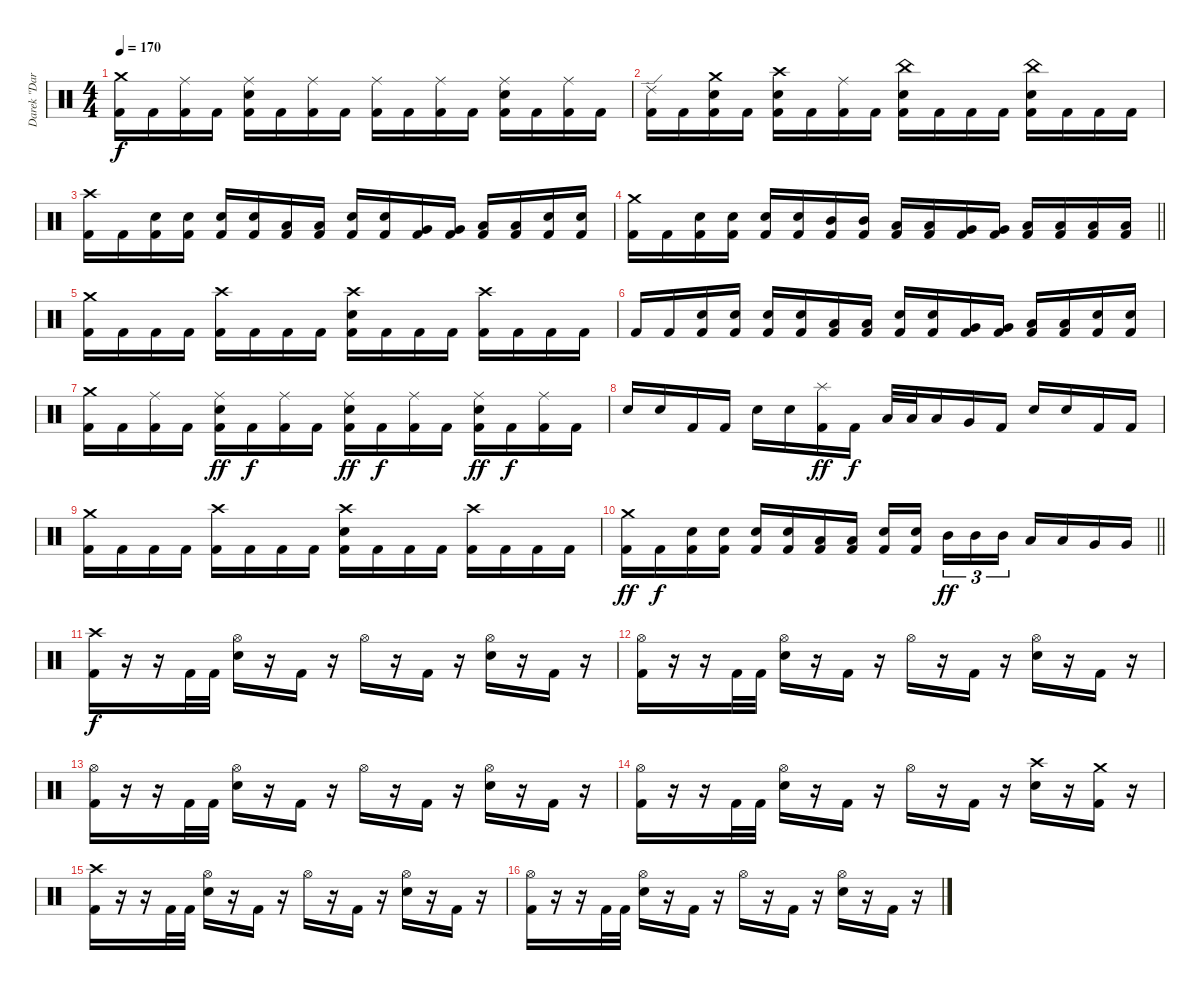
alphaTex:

\track ("Darek \"Daray\" Brzozowski " "Darek \"Dar") {instrument percussion}
\staff {score}
\articulation defaults
\ts (4 4)
\tempo 170
\clef neutral
\ks c
("Crash medium (hit)" "Kick (hit) 2").16{dy f} "Kick (hit) 2".16 ("Ride (middle)" "Kick (hit) 2").16 "Kick (hit) 2".16 ("Ride (middle)" "Electric Snare (hit)" "Kick (hit) 2").16 "Kick (hit) 2".16 ("Ride (middle)" "Kick (hit) 2").16 "Kick (hit) 2".16 ("Ride (middle)" "Kick (hit) 2").16 "Kick (hit) 2".16 ("Ride (middle)" "Kick (hit) 2").16 "Kick (hit) 2".16 ("Ride (middle)" "Electric Snare (hit)" "Kick (hit) 2").16 "Kick (hit) 2".16 ("Ride (middle)" "Kick (hit) 2").16 "Kick (hit) 2".16 |
("Ride (edge) 2" "Kick (hit) 2").16 "Kick (hit) 2".16 ("Crash medium (hit)" "Electric Snare (hit)" "Kick (hit) 2").16 "Kick (hit) 2".16 ("Crash high (hit)" "Electric Snare (hit)" "Kick (hit) 2").16 "Kick (hit) 2".16 ("Ride (middle)" "Kick (hit) 2").16 "Kick (hit) 2".16 ("China (hit)" "Electric Snare (hit)" "Kick (hit) 2").16 "Kick (hit) 2".16 "Kick (hit) 2".16 "Kick (hit) 2".16 ("China (hit)" "Electric Snare (hit)" "Kick (hit) 2").16 "Kick (hit) 2".16 "Kick (hit) 2".16 "Kick (hit) 2".16 |
("Crash high (hit)" "Kick (hit) 2").16 "Kick (hit) 2".16 ("Electric Snare (hit)" "Kick (hit) 2").16 ("Electric Snare (hit)" "Kick (hit) 2").16 ("Electric Snare (hit)" "Kick (hit) 2").16 ("Electric Snare (hit)" "Kick (hit) 2").16 ("Low Tom (hit)" "Kick (hit) 2").16 ("Low Tom (hit)" "Kick (hit) 2").16 ("Electric Snare (hit)" "Kick (hit) 2").16 ("Electric Snare (hit)" "Kick (hit) 2").16 ("Very Low Tom (hit)" "Kick (hit) 2").16 ("Very Low Tom (hit)" "Kick (hit) 2").16 ("Low Floor Tom (hit)" "Kick (hit) 2").16 ("Low Floor Tom (hit)" "Kick (hit) 2").16 ("Electric Snare (hit)" "Kick (hit) 2").16 ("Electric Snare (hit)" "Kick (hit) 2").16 |
\barLineRight lightlight
("Crash medium (hit)" "Kick (hit) 2").16 "Kick (hit) 2".16 ("Electric Snare (hit)" "Kick (hit) 2").16 ("Electric Snare (hit)" "Kick (hit) 2").16 ("Electric Snare (hit)" "Kick (hit) 2").16 ("Electric Snare (hit)" "Kick (hit) 2").16 ("Mid Tom (hit)" "Kick (hit) 2").16 ("Mid Tom (hit)" "Kick (hit) 2").16 ("Low Tom (hit)" "Kick (hit) 2").16 ("Low Tom (hit)" "Kick (hit) 2").16 ("Very Low Tom (hit)" "Kick (hit) 2").16 ("Very Low Tom (hit)" "Kick (hit) 2").16 ("Low Floor Tom (hit)" "Kick (hit) 2").16 ("Low Floor Tom (hit)" "Kick (hit) 2").16 ("Low Floor Tom (hit)" "Kick (hit) 2").16 ("Low Floor Tom (hit)" "Kick (hit) 2").16 |
("Crash medium (hit)" "Kick (hit) 2").16 "Kick (hit) 2".16 "Kick (hit) 2".16 "Kick (hit) 2".16 ("Crash high (hit)" "Kick (hit) 2").16 "Kick (hit) 2".16 "Kick (hit) 2".16 "Kick (hit) 2".16 ("Crash high (hit)" "Electric Snare (hit)" "Kick (hit) 2").16 "Kick (hit) 2".16 "Kick (hit) 2".16 "Kick (hit) 2".16 ("Crash high (hit)" "Kick (hit) 2").16 "Kick (hit) 2".16 "Kick (hit) 2".16 "Kick (hit) 2".16 |
"Kick (hit) 2".16 "Kick (hit) 2".16 ("Electric Snare (hit)" "Kick (hit) 2").16 ("Electric Snare (hit)" "Kick (hit) 2").16 ("Electric Snare (hit)" "Kick (hit) 2").16 ("Electric Snare (hit)" "Kick (hit) 2").16 ("Low Tom (hit)" "Kick (hit) 2").16 ("Low Tom (hit)" "Kick (hit) 2").16 ("Electric Snare (hit)" "Kick (hit) 2").16 ("Electric Snare (hit)" "Kick (hit) 2").16 ("Very Low Tom (hit)" "Kick (hit) 2").16 ("Very Low Tom (hit)" "Kick (hit) 2").16 ("Low Floor Tom (hit)" "Kick (hit) 2").16 ("Low Floor Tom (hit)" "Kick (hit) 2").16 ("Electric Snare (hit)" "Kick (hit) 2").16 ("Electric Snare (hit)" "Kick (hit) 2").16 |
("Crash medium (hit)" "Kick (hit) 2").16 "Kick (hit) 2".16 ("Ride (middle)" "Kick (hit) 2").16 "Kick (hit) 2".16 ("Ride (middle)" "Electric Snare (hit)" "Kick (hit) 2").16{dy ff} "Kick (hit) 2".16{dy f} ("Ride (middle)" "Kick (hit) 2").16 "Kick (hit) 2".16 ("Ride (middle)" "Electric Snare (hit)" "Kick (hit) 2").16{dy ff} "Kick (hit) 2".16{dy f} ("Ride (middle)" "Kick (hit) 2").16 "Kick (hit) 2".16 ("Ride (middle)" "Electric Snare (hit)" "Kick (hit) 2").16{dy ff} "Kick (hit) 2".16{dy f} ("Ride (middle)" "Kick (hit) 2").16 "Kick (hit) 2".16 |
"Electric Snare (hit)".16 "Electric Snare (hit)".16 "Kick (hit) 2".16 "Kick (hit) 2".16 "Electric Snare (hit)".16 "Electric Snare (hit)".16 ("Splash (hit)" "Kick (hit) 2").16{dy ff} "Kick (hit) 2".16{dy f} "Low Tom (hit)".32 "Low Tom (hit)".32 "Low Tom (hit)".16 "Very Low Tom (hit)".16 "Kick (hit) 2".16 "Electric Snare (hit)".16 "Electric Snare (hit)".16 "Kick (hit) 2".16 "Kick (hit) 2".16 |
("Crash medium (hit)" "Kick (hit) 2").16 "Kick (hit) 2".16 "Kick (hit) 2".16 "Kick (hit) 2".16 ("Crash high (hit)" "Kick (hit) 2").16 "Kick (hit) 2".16 "Kick (hit) 2".16 "Kick (hit) 2".16 ("Crash high (hit)" "Electric Snare (hit)" "Kick (hit) 2").16 "Kick (hit) 2".16 "Kick (hit) 2".16 "Kick (hit) 2".16 ("Crash high (hit)" "Kick (hit) 2").16 "Kick (hit) 2".16 "Kick (hit) 2".16 "Kick (hit) 2".16 |
\barLineRight lightlight
("Crash medium (hit)" "Kick (hit) 2").16{dy ff} "Kick (hit) 2".16{dy f} ("Electric Snare (hit)" "Kick (hit) 2").16 ("Electric Snare (hit)" "Kick (hit) 2").16 ("Electric Snare (hit)" "Kick (hit) 2").16 ("Electric Snare (hit)" "Kick (hit) 2").16 ("Low Tom (hit)" "Kick (hit) 2").16 ("Low Tom (hit)" "Kick (hit) 2").16 ("Electric Snare (hit)" "Kick (hit) 2").16 ("Electric Snare (hit)" "Kick (hit) 2").16{beam splitsecondary} "Mid Tom (hit)".16{tu (3 2) dy ff} "Mid Tom (hit)".16{tu (3 2)} "Mid Tom (hit)".16{tu (3 2)} "Low Tom (hit)".16 "Low Tom (hit)".16 "Very Low Tom (hit)".16 "Very Low Tom (hit)".16 |
("Crash high (hit)" "Kick (hit) 2").16{dy f} r.16 r.16 "Kick (hit) 2".32 "Kick (hit) 2".32 ("Hi-Hat (open)" "Electric Snare (hit)").16 r.16 "Kick (hit) 2".16 r.16 "Hi-Hat (open)".16 r.16 "Kick (hit) 2".16 r.16 ("Hi-Hat (open)" "Electric Snare (hit)").16 r.16 "Kick (hit) 2".16 r.16 |
("Hi-Hat (open)" "Kick (hit) 2").16 r.16 r.16 "Kick (hit) 2".32 "Kick (hit) 2".32 ("Hi-Hat (open)" "Electric Snare (hit)").16 r.16 "Kick (hit) 2".16 r.16 "Hi-Hat (open)".16 r.16 "Kick (hit) 2".16 r.16 ("Hi-Hat (open)" "Electric Snare (hit)").16 r.16 "Kick (hit) 2".16 r.16 |
("Hi-Hat (open)" "Kick (hit) 2").16 r.16 r.16 "Kick (hit) 2".32 "Kick (hit) 2".32 ("Hi-Hat (open)" "Electric Snare (hit)").16 r.16 "Kick (hit) 2".16 r.16 "Hi-Hat (open)".16 r.16 "Kick (hit) 2".16 r.16 ("Hi-Hat (open)" "Electric Snare (hit)").16 r.16 "Kick (hit) 2".16 r.16 |
("Hi-Hat (open)" "Kick (hit) 2").16 r.16 r.16 "Kick (hit) 2".32 "Kick (hit) 2".32 ("Hi-Hat (open)" "Electric Snare (hit)").16 r.16 "Kick (hit) 2".16 r.16 "Hi-Hat (open)".16 r.16 "Kick (hit) 2".16 r.16 ("Crash high (hit)" "Electric Snare (hit)").16 r.16 ("Crash medium (hit)" "Kick (hit) 2").16 r.16 |
("Crash high (hit)" "Kick (hit) 2").16 r.16 r.16 "Kick (hit) 2".32 "Kick (hit) 2".32 ("Hi-Hat (open)" "Electric Snare (hit)").16 r.16 "Kick (hit) 2".16 r.16 "Hi-Hat (open)".16 r.16 "Kick (hit) 2".16 r.16 ("Hi-Hat (open)" "Electric Snare (hit)").16 r.16 "Kick (hit) 2".16 r.16 |
("Hi-Hat (open)" "Kick (hit) 2").16 r.16 r.16 "Kick (hit) 2".32 "Kick (hit) 2".32 ("Hi-Hat (open)" "Electric Snare (hit)").16 r.16 "Kick (hit) 2".16 r.16 "Hi-Hat (open)".16 r.16 "Kick (hit) 2".16 r.16 ("Hi-Hat (open)" "Electric Snare (hit)").16 r.16 "Kick (hit) 2".16 r.16
